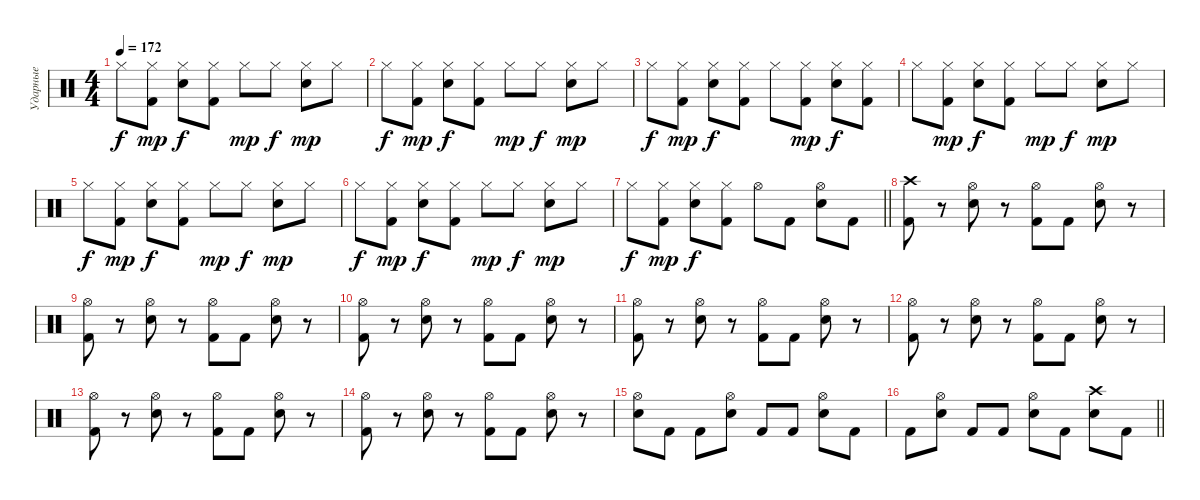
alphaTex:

\track ("Ударные" "Ударные") {instrument percussion}
\staff {score}
\articulation defaults
\ts (4 4)
\tempo 172
\clef neutral
\ks c "Hi-Hat (closed)".8{dy f}
("Hi-Hat (closed)" "Kick (hit) 2").8{dy mp} ("Hi-Hat (closed)" "Snare (hit) 2").8{dy f} ("Hi-Hat (closed)" "Kick (hit) 2").8 "Hi-Hat (closed)".8{dy mp} "Hi-Hat (closed)".8{dy f} ("Hi-Hat (closed)" "Snare (hit) 2").8{dy mp} "Hi-Hat (closed)".8 |
"Hi-Hat (closed)".8{dy f} ("Hi-Hat (closed)" "Kick (hit) 2").8{dy mp} ("Hi-Hat (closed)" "Snare (hit) 2").8{dy f} ("Hi-Hat (closed)" "Kick (hit) 2").8 "Hi-Hat (closed)".8{dy mp} "Hi-Hat (closed)".8{dy f} ("Hi-Hat (closed)" "Snare (hit) 2").8{dy mp} "Hi-Hat (closed)".8 |
"Hi-Hat (closed)".8{dy f} ("Hi-Hat (closed)" "Kick (hit) 2").8{dy mp} ("Hi-Hat (closed)" "Snare (hit) 2").8{dy f} ("Hi-Hat (closed)" "Kick (hit) 2").8 "Hi-Hat (closed)".8 ("Hi-Hat (closed)" "Kick (hit) 2").8{dy mp} ("Hi-Hat (closed)" "Snare (hit) 2").8{dy f} ("Hi-Hat (closed)" "Kick (hit) 2").8 |
"Hi-Hat (closed)".8 ("Hi-Hat (closed)" "Kick (hit) 2").8{dy mp} ("Hi-Hat (closed)" "Snare (hit) 2").8{dy f} ("Hi-Hat (closed)" "Kick (hit) 2").8 "Hi-Hat (closed)".8{dy mp} "Hi-Hat (closed)".8{dy f} ("Hi-Hat (closed)" "Snare (hit) 2").8{dy mp} "Hi-Hat (closed)".8 |
"Hi-Hat (closed)".8{dy f} ("Hi-Hat (closed)" "Kick (hit) 2").8{dy mp} ("Hi-Hat (closed)" "Snare (hit) 2").8{dy f} ("Hi-Hat (closed)" "Kick (hit) 2").8 "Hi-Hat (closed)".8{dy mp} "Hi-Hat (closed)".8{dy f} ("Hi-Hat (closed)" "Snare (hit) 2").8{dy mp} "Hi-Hat (closed)".8 |
"Hi-Hat (closed)".8{dy f} ("Hi-Hat (closed)" "Kick (hit) 2").8{dy mp} ("Hi-Hat (closed)" "Snare (hit) 2").8{dy f} ("Hi-Hat (closed)" "Kick (hit) 2").8 "Hi-Hat (closed)".8{dy mp} "Hi-Hat (closed)".8{dy f} ("Hi-Hat (closed)" "Snare (hit) 2").8{dy mp} "Hi-Hat (closed)".8 |
\barLineRight lightlight "Hi-Hat (closed)".8{dy f}
("Hi-Hat (closed)" "Kick (hit) 2").8{dy mp} ("Hi-Hat (closed)" "Snare (hit) 2").8{dy f} ("Hi-Hat (closed)" "Kick (hit) 2").8 "Hi-Hat (open)".8 "Kick (hit) 2".8 ("Hi-Hat (open)" "Snare (hit) 2").8 "Kick (hit) 2".8 |
\section ("" "")
("Crash high (hit)" "Kick (hit) 2").8 r.8 ("Hi-Hat (open)" "Snare (hit) 2").8 r.8 ("Hi-Hat (open)" "Kick (hit) 2").8 "Kick (hit) 2".8 ("Hi-Hat (open)" "Snare (hit) 2").8 r.8 |
("Hi-Hat (open)" "Kick (hit) 2").8 r.8 ("Hi-Hat (open)" "Snare (hit) 2").8 r.8 ("Hi-Hat (open)" "Kick (hit) 2").8 "Kick (hit) 2".8 ("Hi-Hat (open)" "Snare (hit) 2").8 r.8 |
("Hi-Hat (open)" "Kick (hit) 2").8 r.8 ("Hi-Hat (open)" "Snare (hit) 2").8 r.8 ("Hi-Hat (open)" "Kick (hit) 2").8 "Kick (hit) 2".8 ("Hi-Hat (open)" "Snare (hit) 2").8 r.8 |
("Hi-Hat (open)" "Kick (hit) 2").8 r.8 ("Hi-Hat (open)" "Snare (hit) 2").8 r.8 ("Hi-Hat (open)" "Kick (hit) 2").8 "Kick (hit) 2".8 ("Hi-Hat (open)" "Snare (hit) 2").8 r.8 |
("Hi-Hat (open)" "Kick (hit) 2").8 r.8 ("Hi-Hat (open)" "Snare (hit) 2").8 r.8 ("Hi-Hat (open)" "Kick (hit) 2").8 "Kick (hit) 2".8 ("Hi-Hat (open)" "Snare (hit) 2").8 r.8 |
("Hi-Hat (open)" "Kick (hit) 2").8 r.8 ("Hi-Hat (open)" "Snare (hit) 2").8 r.8 ("Hi-Hat (open)" "Kick (hit) 2").8 "Kick (hit) 2".8 ("Hi-Hat (open)" "Snare (hit) 2").8 r.8 |
("Hi-Hat (open)" "Kick (hit) 2").8 r.8 ("Hi-Hat (open)" "Snare (hit) 2").8 r.8 ("Hi-Hat (open)" "Kick (hit) 2").8 "Kick (hit) 2".8 ("Hi-Hat (open)" "Snare (hit) 2").8 r.8 |
("Hi-Hat (open)" "Snare (hit) 2").8 "Kick (hit) 2".8 "Kick (hit) 2".8 ("Hi-Hat (open)" "Snare (hit) 2").8 "Kick (hit) 2".8 "Kick (hit) 2".8 ("Hi-Hat (open)" "Snare (hit) 2").8 "Kick (hit) 2".8 |
\barLineRight lightlight "Kick (hit) 2".8
("Hi-Hat (open)" "Snare (hit) 2").8 "Kick (hit) 2".8 "Kick (hit) 2".8 ("Hi-Hat (open)" "Snare (hit) 2").8 "Kick (hit) 2".8 ("Crash high (hit)" "Snare (hit) 2").8 "Kick (hit) 2".8
